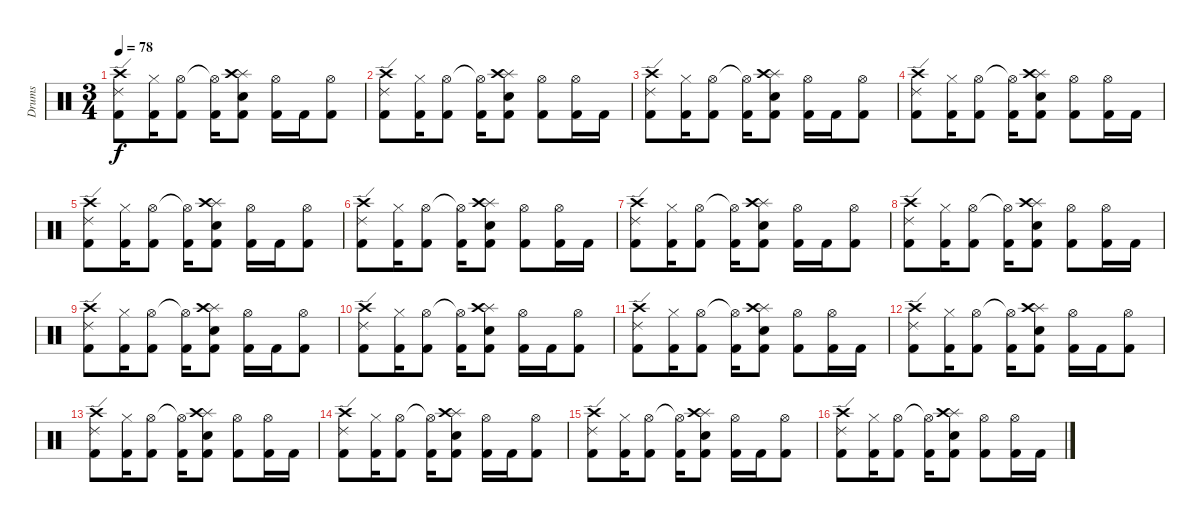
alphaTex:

\track ("Drums" "Drums") {instrument percussion}
\staff {score}
\articulation defaults
\ts (3 4)
\tempo 78
\clef neutral
\ks c
("Crash high (hit)" "Ride (edge) 2" "Kick (hit) 2").8{dy f} ("Hi-Hat (closed)" "Kick (hit) 2").16 ("Hi-Hat (open)" "Kick (hit) 2").8 ("Hi-Hat (open)"{t} "Kick (hit) 2").16 ("Splash (hit)" "Crash high (hit)" "Snare (hit) 2" "Kick (hit) 2").8 ("Hi-Hat (open)" "Kick (hit) 2").16 "Kick (hit) 2".16 ("Hi-Hat (open)" "Kick (hit) 2").8 |
("Crash high (hit)" "Ride (edge) 2" "Kick (hit) 2").8 ("Hi-Hat (closed)" "Kick (hit) 2").16 ("Hi-Hat (open)" "Kick (hit) 2").8 ("Hi-Hat (open)"{t} "Kick (hit) 2").16 ("Splash (hit)" "Crash high (hit)" "Snare (hit) 2" "Kick (hit) 2").8 ("Hi-Hat (open)" "Kick (hit) 2").8 ("Hi-Hat (open)" "Kick (hit) 2").16 "Kick (hit) 2".16 |
("Crash high (hit)" "Ride (edge) 2" "Kick (hit) 2").8 ("Hi-Hat (closed)" "Kick (hit) 2").16 ("Hi-Hat (open)" "Kick (hit) 2").8 ("Hi-Hat (open)"{t} "Kick (hit) 2").16 ("Splash (hit)" "Crash high (hit)" "Snare (hit) 2" "Kick (hit) 2").8 ("Hi-Hat (open)" "Kick (hit) 2").16 "Kick (hit) 2".16 ("Hi-Hat (open)" "Kick (hit) 2").8 |
("Crash high (hit)" "Ride (edge) 2" "Kick (hit) 2").8 ("Hi-Hat (closed)" "Kick (hit) 2").16 ("Hi-Hat (open)" "Kick (hit) 2").8 ("Hi-Hat (open)"{t} "Kick (hit) 2").16 ("Splash (hit)" "Crash high (hit)" "Snare (hit) 2" "Kick (hit) 2").8 ("Hi-Hat (open)" "Kick (hit) 2").8 ("Hi-Hat (open)" "Kick (hit) 2").16 "Kick (hit) 2".16 |
("Crash high (hit)" "Ride (edge) 2" "Kick (hit) 2").8 ("Hi-Hat (closed)" "Kick (hit) 2").16 ("Hi-Hat (open)" "Kick (hit) 2").8 ("Hi-Hat (open)"{t} "Kick (hit) 2").16 ("Splash (hit)" "Crash high (hit)" "Snare (hit) 2" "Kick (hit) 2").8 ("Hi-Hat (open)" "Kick (hit) 2").16 "Kick (hit) 2".16 ("Hi-Hat (open)" "Kick (hit) 2").8 |
("Crash high (hit)" "Ride (edge) 2" "Kick (hit) 2").8 ("Hi-Hat (closed)" "Kick (hit) 2").16 ("Hi-Hat (open)" "Kick (hit) 2").8 ("Hi-Hat (open)"{t} "Kick (hit) 2").16 ("Splash (hit)" "Crash high (hit)" "Snare (hit) 2" "Kick (hit) 2").8 ("Hi-Hat (open)" "Kick (hit) 2").8 ("Hi-Hat (open)" "Kick (hit) 2").16 "Kick (hit) 2".16 |
("Crash high (hit)" "Ride (edge) 2" "Kick (hit) 2").8 ("Hi-Hat (closed)" "Kick (hit) 2").16 ("Hi-Hat (open)" "Kick (hit) 2").8 ("Hi-Hat (open)"{t} "Kick (hit) 2").16 ("Splash (hit)" "Crash high (hit)" "Snare (hit) 2" "Kick (hit) 2").8 ("Hi-Hat (open)" "Kick (hit) 2").16 "Kick (hit) 2".16 ("Hi-Hat (open)" "Kick (hit) 2").8 |
("Crash high (hit)" "Ride (edge) 2" "Kick (hit) 2").8 ("Hi-Hat (closed)" "Kick (hit) 2").16 ("Hi-Hat (open)" "Kick (hit) 2").8 ("Hi-Hat (open)"{t} "Kick (hit) 2").16 ("Splash (hit)" "Crash high (hit)" "Snare (hit) 2" "Kick (hit) 2").8 ("Hi-Hat (open)" "Kick (hit) 2").8 ("Hi-Hat (open)" "Kick (hit) 2").16 "Kick (hit) 2".16 |
("Crash high (hit)" "Ride (edge) 2" "Kick (hit) 2").8 ("Hi-Hat (closed)" "Kick (hit) 2").16 ("Hi-Hat (open)" "Kick (hit) 2").8 ("Hi-Hat (open)"{t} "Kick (hit) 2").16 ("Splash (hit)" "Crash high (hit)" "Snare (hit) 2" "Kick (hit) 2").8 ("Hi-Hat (open)" "Kick (hit) 2").16 "Kick (hit) 2".16 ("Hi-Hat (open)" "Kick (hit) 2").8 |
("Crash high (hit)" "Ride (edge) 2" "Kick (hit) 2").8 ("Hi-Hat (closed)" "Kick (hit) 2").16 ("Hi-Hat (open)" "Kick (hit) 2").8 ("Hi-Hat (open)"{t} "Kick (hit) 2").16 ("Splash (hit)" "Crash high (hit)" "Snare (hit) 2" "Kick (hit) 2").8 ("Hi-Hat (open)" "Kick (hit) 2").16 "Kick (hit) 2".16 ("Hi-Hat (open)" "Kick (hit) 2").8 |
("Crash high (hit)" "Ride (edge) 2" "Kick (hit) 2").8 ("Hi-Hat (closed)" "Kick (hit) 2").16 ("Hi-Hat (open)" "Kick (hit) 2").8 ("Hi-Hat (open)"{t} "Kick (hit) 2").16 ("Splash (hit)" "Crash high (hit)" "Snare (hit) 2" "Kick (hit) 2").8 ("Hi-Hat (open)" "Kick (hit) 2").8 ("Hi-Hat (open)" "Kick (hit) 2").16 "Kick (hit) 2".16 |
("Crash high (hit)" "Ride (edge) 2" "Kick (hit) 2").8 ("Hi-Hat (closed)" "Kick (hit) 2").16 ("Hi-Hat (open)" "Kick (hit) 2").8 ("Hi-Hat (open)"{t} "Kick (hit) 2").16 ("Splash (hit)" "Crash high (hit)" "Snare (hit) 2" "Kick (hit) 2").8 ("Hi-Hat (open)" "Kick (hit) 2").16 "Kick (hit) 2".16 ("Hi-Hat (open)" "Kick (hit) 2").8 |
("Crash high (hit)" "Ride (edge) 2" "Kick (hit) 2").8 ("Hi-Hat (closed)" "Kick (hit) 2").16 ("Hi-Hat (open)" "Kick (hit) 2").8 ("Hi-Hat (open)"{t} "Kick (hit) 2").16 ("Splash (hit)" "Crash high (hit)" "Snare (hit) 2" "Kick (hit) 2").8 ("Hi-Hat (open)" "Kick (hit) 2").8 ("Hi-Hat (open)" "Kick (hit) 2").16 "Kick (hit) 2".16 |
("Crash high (hit)" "Ride (edge) 2" "Kick (hit) 2").8 ("Hi-Hat (closed)" "Kick (hit) 2").16 ("Hi-Hat (open)" "Kick (hit) 2").8 ("Hi-Hat (open)"{t} "Kick (hit) 2").16 ("Splash (hit)" "Crash high (hit)" "Snare (hit) 2" "Kick (hit) 2").8 ("Hi-Hat (open)" "Kick (hit) 2").16 "Kick (hit) 2".16 ("Hi-Hat (open)" "Kick (hit) 2").8 |
("Crash high (hit)" "Ride (edge) 2" "Kick (hit) 2").8 ("Hi-Hat (closed)" "Kick (hit) 2").16 ("Hi-Hat (open)" "Kick (hit) 2").8 ("Hi-Hat (open)"{t} "Kick (hit) 2").16 ("Splash (hit)" "Crash high (hit)" "Snare (hit) 2" "Kick (hit) 2").8 ("Hi-Hat (open)" "Kick (hit) 2").16 "Kick (hit) 2".16 ("Hi-Hat (open)" "Kick (hit) 2").8 |
("Crash high (hit)" "Ride (edge) 2" "Kick (hit) 2").8 ("Hi-Hat (closed)" "Kick (hit) 2").16 ("Hi-Hat (open)" "Kick (hit) 2").8 ("Hi-Hat (open)"{t} "Kick (hit) 2").16 ("Splash (hit)" "Crash high (hit)" "Snare (hit) 2" "Kick (hit) 2").8 ("Hi-Hat (open)" "Kick (hit) 2").8 ("Hi-Hat (open)" "Kick (hit) 2").16 "Kick (hit) 2".16
